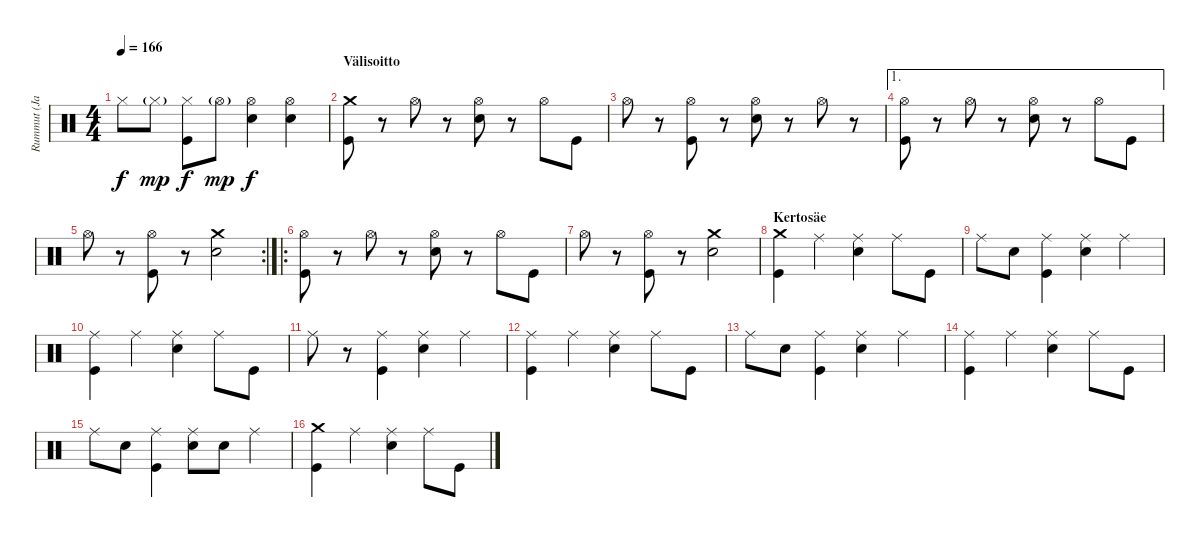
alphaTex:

\track ("Rummut (Janne)" "Rummut (Ja") {instrument percussion}
\staff {score}
\articulation defaults
\ts (4 4)
\tempo 166
\clef neutral
\ks c "Hi-Hat (closed)".8{dy f} "Hi-Hat (closed)"{g}.8{dy mp}
("Hi-Hat (closed)" "Kick (hit)").8{dy f} "Hi-Hat (open)"{g}.8{dy mp} ("Hi-Hat (open)" "Snare (hit) 2").4{dy f} ("Hi-Hat (open)" "Snare (hit) 2").4 |
\section ("" "Välisoitto")
("Crash medium (hit)" "Kick (hit)").8 r.8 "Hi-Hat (open)".8 r.8 ("Hi-Hat (open)" "Snare (hit) 2").8 r.8 "Hi-Hat (open)".8 "Kick (hit)".8 |
"Hi-Hat (open)".8 r.8 ("Hi-Hat (open)" "Kick (hit)").8 r.8 ("Hi-Hat (open)" "Snare (hit) 2").8 r.8 "Hi-Hat (open)".8 r.8 |
\ae 1
("Hi-Hat (open)" "Kick (hit)").8 r.8 "Hi-Hat (open)".8 r.8 ("Hi-Hat (open)" "Snare (hit) 2").8 r.8 "Hi-Hat (open)".8 "Kick (hit)".8 |
\rc 2 "Hi-Hat (open)".8
r.8 ("Hi-Hat (open)" "Kick (hit)").8 r.8 ("Crash medium (hit)" "Snare (hit) 2").2 |
\ro
("Hi-Hat (open)" "Kick (hit)").8 r.8 "Hi-Hat (open)".8 r.8 ("Hi-Hat (open)" "Snare (hit) 2").8 r.8 "Hi-Hat (open)".8 "Kick (hit)".8 |
"Hi-Hat (open)".8 r.8 ("Hi-Hat (open)" "Kick (hit)").8 r.8 ("Crash medium (hit)" "Snare (hit) 2").2 |
\section ("" "Kertosäe")
("Crash medium (hit)" "Kick (hit)").4 "Ride (middle)".4 ("Ride (middle)" "Snare (hit) 2").4 "Ride (middle)".8 "Kick (hit)".8 |
"Ride (middle)".8 "Snare (hit) 2".8 ("Ride (middle)" "Kick (hit)").4 ("Ride (middle)" "Snare (hit) 2").4 "Ride (middle)".4 |
("Ride (middle)" "Kick (hit)").4 "Ride (middle)".4 ("Ride (middle)" "Snare (hit) 2").4 "Ride (middle)".8 "Kick (hit)".8 |
"Ride (middle)".8 r.8 ("Ride (middle)" "Kick (hit)").4 ("Ride (middle)" "Snare (hit) 2").4 "Ride (middle)".4 |
("Ride (middle)" "Kick (hit)").4 "Ride (middle)".4 ("Ride (middle)" "Snare (hit) 2").4 "Ride (middle)".8 "Kick (hit)".8 |
"Ride (middle)".8 "Snare (hit) 2".8 ("Ride (middle)" "Kick (hit)").4 ("Ride (middle)" "Snare (hit) 2").4 "Ride (middle)".4 |
("Ride (middle)" "Kick (hit)").4 "Ride (middle)".4 ("Ride (middle)" "Snare (hit) 2").4 "Ride (middle)".8 "Kick (hit)".8 |
"Ride (middle)".8 "Snare (hit) 2".8 ("Ride (middle)" "Kick (hit)").4 ("Ride (middle)" "Snare (hit) 2").8 "Snare (hit) 2".8 "Ride (middle)".4 |
("Crash medium (hit)" "Kick (hit)").4 "Ride (middle)".4 ("Ride (middle)" "Snare (hit) 2").4 "Ride (middle)".8 "Kick (hit)".8
